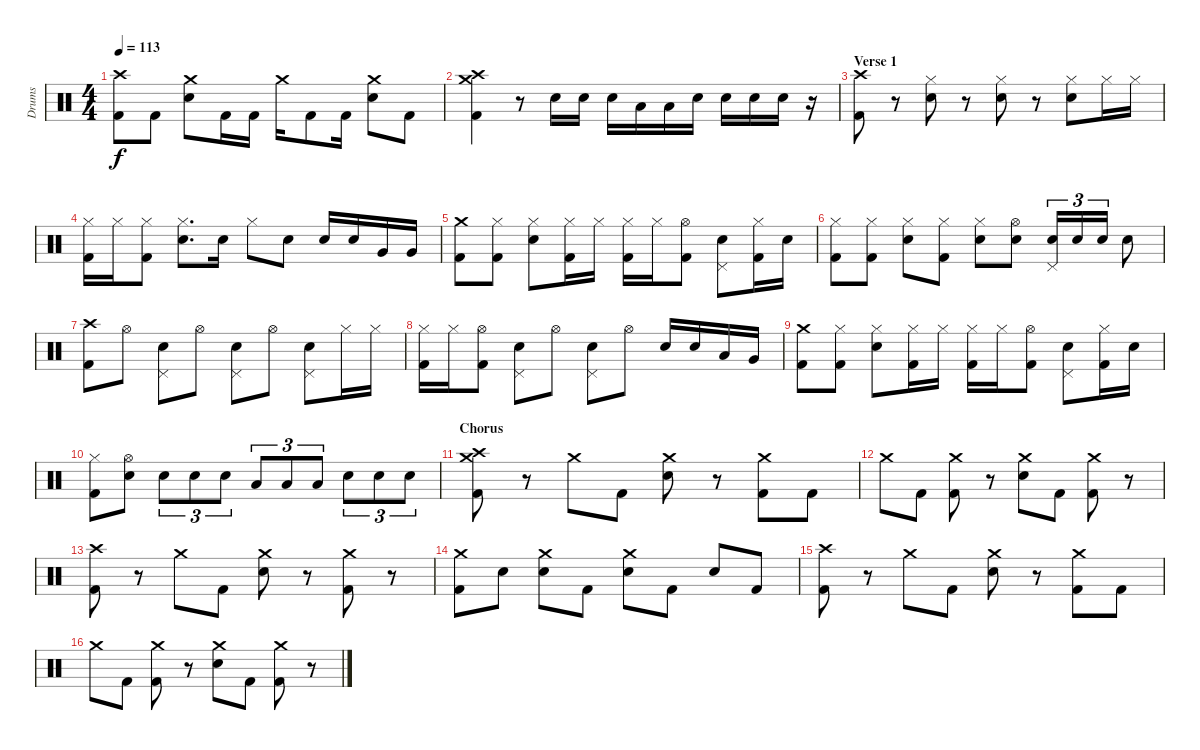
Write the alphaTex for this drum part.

\track ("Drums" "Drums") {instrument percussion}
\staff {score}
\articulation defaults
\ts (4 4)
\tempo 113
\clef neutral
\ks c
("Crash high (hit)" "Kick (hit) 2").8{dy f} "Kick (hit) 2".8 ("Crash medium (hit)" "Snare (hit) 2").8 "Kick (hit) 2".16 "Kick (hit) 2".16 "Crash medium (hit)".16 "Kick (hit) 2".8 "Kick (hit) 2".16 ("Crash medium (hit)" "Snare (hit) 2").8 "Kick (hit) 2".8 |
("Crash medium (hit)" "Crash high (hit)" "Kick (hit) 2").4 r.8 "Snare (hit) 2".16 "Snare (hit) 2".16 "Snare (hit) 2".16 "Low Tom (hit)".16 "Low Tom (hit)".16 "Snare (hit) 2".16 "Snare (hit) 2".16 "Snare (hit) 2".16 "Snare (hit) 2".16 r.16 |
\section ("" "Verse 1")
("Crash high (hit)" "Kick (hit) 2").8 r.8 ("Hi-Hat (closed)" "Snare (hit) 2").8 r.8 ("Hi-Hat (closed)" "Snare (hit) 2").8 r.8 ("Hi-Hat (closed)" "Snare (hit) 2").8 "Hi-Hat (closed)".16 "Hi-Hat (closed)".16 |
("Hi-Hat (closed)" "Kick (hit) 2").16 "Hi-Hat (closed)".16 ("Hi-Hat (closed)" "Kick (hit) 2").8 ("Hi-Hat (closed)" "Snare (hit) 2").8{d} "Snare (hit) 2".16 "Hi-Hat (closed)".8 "Snare (hit) 2".8 "Snare (hit) 2".16 "Snare (hit) 2".16 "Very Low Tom (hit)".16 "Very Low Tom (hit)".16 |
("Crash medium (hit)" "Kick (hit) 2").8 ("Hi-Hat (closed)" "Kick (hit) 2").8 ("Hi-Hat (closed)" "Snare (hit) 2").8 ("Hi-Hat (closed)" "Kick (hit) 2").16 "Hi-Hat (closed)".16 ("Hi-Hat (closed)" "Kick (hit) 2").16 "Hi-Hat (closed)".16 ("Hi-Hat (open)" "Kick (hit) 2").8 ("Pedal Hi-Hat (hit)" "Snare (hit) 2").8 ("Hi-Hat (closed)" "Kick (hit) 2").16 "Snare (hit) 2".16 |
("Hi-Hat (closed)" "Kick (hit) 2").8 ("Hi-Hat (closed)" "Kick (hit) 2").8 ("Hi-Hat (closed)" "Snare (hit) 2").8 ("Hi-Hat (closed)" "Kick (hit) 2").8 ("Hi-Hat (closed)" "Snare (hit) 2").8 ("Hi-Hat (open)" "Snare (hit) 2").8 ("Pedal Hi-Hat (hit)" "Snare (hit) 2").16{tu (3 2)} "Snare (hit) 2".16{tu (3 2)} "Snare (hit) 2".16{tu (3 2)} "Snare (hit) 2".8 |
("Crash high (hit)" "Kick (hit) 2").8 "Hi-Hat (open)".8 ("Pedal Hi-Hat (hit)" "Snare (hit) 2").8 "Hi-Hat (open)".8 ("Pedal Hi-Hat (hit)" "Snare (hit) 2").8 "Hi-Hat (open)".8 ("Pedal Hi-Hat (hit)" "Snare (hit) 2").8 "Hi-Hat (closed)".16 "Hi-Hat (closed)".16 |
("Hi-Hat (closed)" "Kick (hit) 2").16 "Hi-Hat (closed)".16 ("Hi-Hat (open)" "Kick (hit) 2").8 ("Pedal Hi-Hat (hit)" "Snare (hit) 2").8 "Hi-Hat (open)".8 ("Pedal Hi-Hat (hit)" "Snare (hit) 2").8 "Hi-Hat (open)".8 "Snare (hit) 2".16 "Snare (hit) 2".16 "Low Tom (hit)".16 "Very Low Tom (hit)".16 |
("Crash medium (hit)" "Kick (hit) 2").8 ("Hi-Hat (closed)" "Kick (hit) 2").8 ("Hi-Hat (closed)" "Snare (hit) 2").8 ("Hi-Hat (closed)" "Kick (hit) 2").16 "Hi-Hat (closed)".16 ("Hi-Hat (closed)" "Kick (hit) 2").16 "Hi-Hat (closed)".16 ("Hi-Hat (open)" "Kick (hit) 2").8 ("Pedal Hi-Hat (hit)" "Snare (hit) 2").8 ("Hi-Hat (closed)" "Kick (hit) 2").16 "Snare (hit) 2".16 |
("Hi-Hat (closed)" "Kick (hit) 2").8 ("Hi-Hat (open)" "Snare (hit) 2").8 "Snare (hit) 2".8{tu (3 2)} "Snare (hit) 2".8{tu (3 2)} "Snare (hit) 2".8{tu (3 2)} "Low Tom (hit)".8{tu (3 2)} "Low Tom (hit)".8{tu (3 2)} "Low Tom (hit)".8{tu (3 2)} "Snare (hit) 2".8{tu (3 2)} "Snare (hit) 2".8{tu (3 2)} "Snare (hit) 2".8{tu (3 2)} |
\section ("" "Chorus")
("Crash high (hit)" "Crash medium (hit)" "Kick (hit) 2").8 r.8 "Crash medium (hit)".8 "Kick (hit) 2".8 ("Crash medium (hit)" "Snare (hit) 2").8 r.8 ("Crash medium (hit)" "Kick (hit) 2").8 "Kick (hit) 2".8 |
"Crash medium (hit)".8 "Kick (hit) 2".8 ("Crash medium (hit)" "Kick (hit) 2").8 r.8 ("Crash medium (hit)" "Snare (hit) 2").8 "Kick (hit) 2".8 ("Crash medium (hit)" "Kick (hit) 2").8 r.8 |
("Crash high (hit)" "Kick (hit) 2").8 r.8 "Crash medium (hit)".8 "Kick (hit) 2".8 ("Crash medium (hit)" "Snare (hit) 2").8 r.8 ("Crash medium (hit)" "Kick (hit) 2").8 r.8 |
("Crash medium (hit)" "Kick (hit) 2").8 "Snare (hit) 2".8 ("Crash medium (hit)" "Snare (hit) 2").8 "Kick (hit) 2".8 ("Crash medium (hit)" "Snare (hit) 2").8 "Kick (hit) 2".8 "Snare (hit) 2".8 "Kick (hit) 2".8 |
("Crash high (hit)" "Kick (hit) 2").8 r.8 "Crash medium (hit)".8 "Kick (hit) 2".8 ("Crash medium (hit)" "Snare (hit) 2").8 r.8 ("Crash medium (hit)" "Kick (hit) 2").8 "Kick (hit) 2".8 |
"Crash medium (hit)".8 "Kick (hit) 2".8 ("Crash medium (hit)" "Kick (hit) 2").8 r.8 ("Crash medium (hit)" "Snare (hit) 2").8 "Kick (hit) 2".8 ("Crash medium (hit)" "Kick (hit) 2").8 r.8
